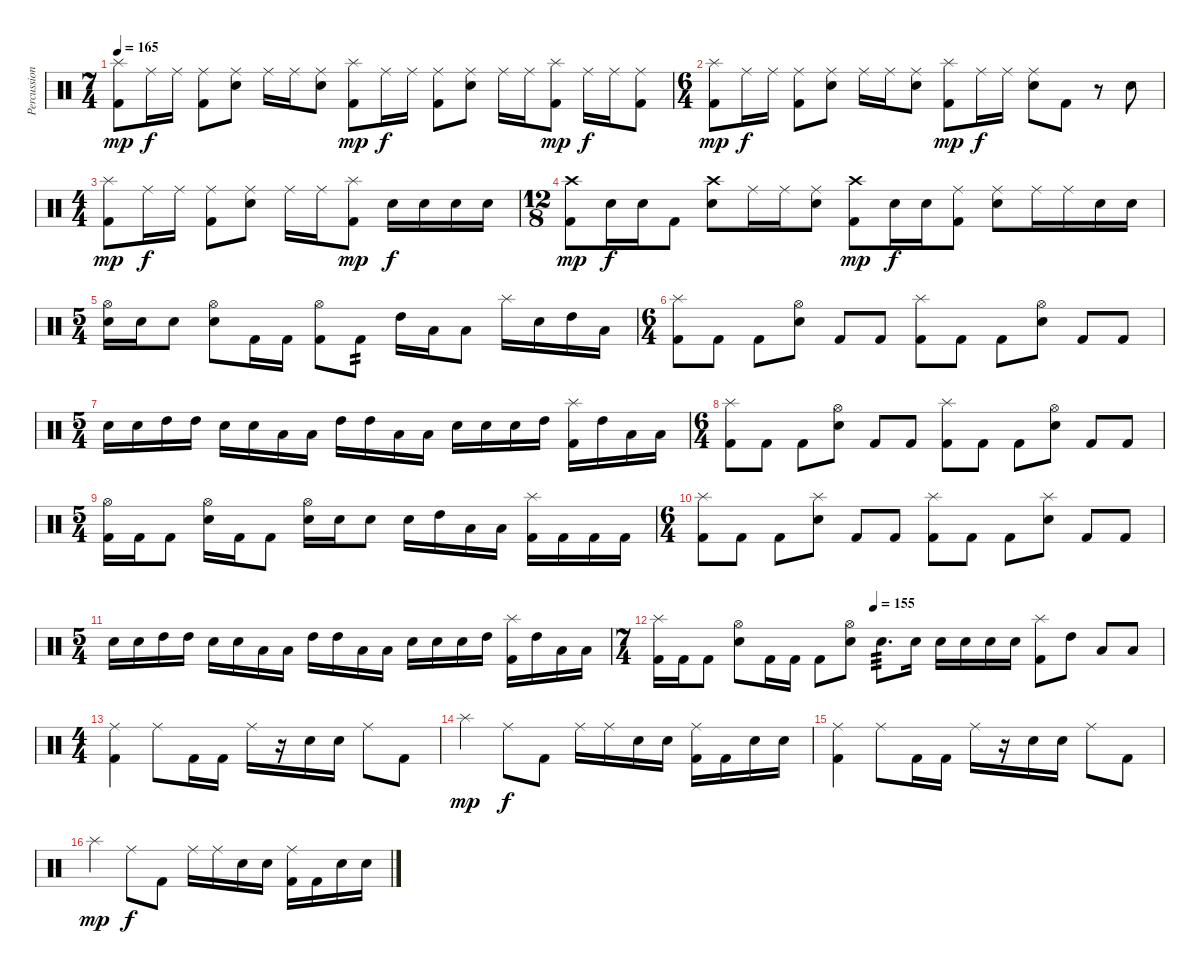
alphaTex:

\track ("Percussion" "Percussion") {instrument percussion}
\staff {score}
\articulation defaults
\ts (7 4)
\tempo 165
\clef neutral
\ks c
("Splash (hit)" "Kick (hit) 2").8{dy mp} "Ride (middle)".16{dy f} "Ride (middle)".16 ("Ride (middle)" "Kick (hit) 2").8 ("Ride (middle)" "Electric Snare (hit)").8 "Ride (middle)".16 "Ride (middle)".16 ("Ride (middle)" "Electric Snare (hit)").8 ("Splash (hit)" "Kick (hit) 2").8{dy mp} "Ride (middle)".16{dy f} "Ride (middle)".16 ("Ride (middle)" "Kick (hit) 2").8 ("Ride (middle)" "Electric Snare (hit)").8 "Ride (middle)".16 "Ride (middle)".16 ("Splash (hit)" "Kick (hit) 2").8{dy mp} "Ride (middle)".16{dy f} "Ride (middle)".16 ("Ride (middle)" "Kick (hit) 2").8 |
\ts (6 4)
("Splash (hit)" "Kick (hit) 2").8{dy mp} "Ride (middle)".16{dy f} "Ride (middle)".16 ("Ride (middle)" "Kick (hit) 2").8 ("Ride (middle)" "Electric Snare (hit)").8 "Ride (middle)".16 "Ride (middle)".16 ("Ride (middle)" "Electric Snare (hit)").8 ("Splash (hit)" "Kick (hit) 2").8{dy mp} "Ride (middle)".16{dy f} "Ride (middle)".16 ("Ride (middle)" "Electric Snare (hit)").8 "Kick (hit) 2".8 r.8 "Electric Snare (hit)".8 |
\ts (4 4)
("Splash (hit)" "Kick (hit) 2").8{dy mp} "Ride (middle)".16{dy f} "Ride (middle)".16 ("Ride (middle)" "Kick (hit) 2").8 ("Ride (middle)" "Electric Snare (hit)").8 "Ride (middle)".16 "Ride (middle)".16 ("Splash (hit)" "Kick (hit) 2").8{dy mp} "Electric Snare (hit)".16{dy f} "Electric Snare (hit)".16 "Electric Snare (hit)".16 "Electric Snare (hit)".16 |
\ts (12 8)
("Crash high (hit)" "Kick (hit) 2").8{dy mp} "Electric Snare (hit)".16{dy f} "Electric Snare (hit)".16 "Kick (hit) 2".8 ("Crash high (hit)" "Electric Snare (hit)").8 "Ride (middle)".16 "Ride (middle)".16 ("Ride (middle)" "Electric Snare (hit)").8 ("Crash high (hit)" "Kick (hit) 2").8{dy mp} "Electric Snare (hit)".16{dy f} "Electric Snare (hit)".16 ("Ride (middle)" "Kick (hit) 2").8 ("Ride (middle)" "Electric Snare (hit)").8 "Ride (middle)".16 "Ride (middle)".16 "Electric Snare (hit)".16 "Electric Snare (hit)".16 |
\ts (5 4)
("Hi-Hat (open)" "Electric Snare (hit)").16 "Electric Snare (hit)".16 "Electric Snare (hit)".8 ("Hi-Hat (open)" "Electric Snare (hit)").8 "Kick (hit) 2".16 "Kick (hit) 2".16 ("Hi-Hat (open)" "Kick (hit) 2").8 "Kick (hit) 2".8{tp 2} "High Tom (hit)".16 "Low Tom (hit)".16 "Low Floor Tom (hit)".8 "Splash (hit)".16 "Electric Snare (hit)".16 "High Tom (hit)".16 "Low Tom (hit)".16 |
\ts (6 4)
("Splash (hit)" "Kick (hit) 2").8 "Kick (hit) 2".8 "Kick (hit) 2".8 ("Hi-Hat (open)" "Electric Snare (hit)").8 "Kick (hit) 2".8 "Kick (hit) 2".8 ("Splash (hit)" "Kick (hit) 2").8 "Kick (hit) 2".8 "Kick (hit) 2".8 ("Hi-Hat (open)" "Electric Snare (hit)").8 "Kick (hit) 2".8 "Kick (hit) 2".8 |
\ts (5 4)
"Electric Snare (hit)".16 "Electric Snare (hit)".16 "High Tom (hit)".16 "High Tom (hit)".16 "Electric Snare (hit)".16 "Electric Snare (hit)".16 "Low Tom (hit)".16 "Low Tom (hit)".16 "High Tom (hit)".16 "High Tom (hit)".16 "Low Tom (hit)".16 "Low Floor Tom (hit)".16 "Electric Snare (hit)".16 "Electric Snare (hit)".16 "Electric Snare (hit)".16 "High Tom (hit)".16 ("Splash (hit)" "Kick (hit) 2").16 "High Tom (hit)".16 "Low Tom (hit)".16 "Low Floor Tom (hit)".16 |
\ts (6 4)
("Splash (hit)" "Kick (hit) 2").8 "Kick (hit) 2".8 "Kick (hit) 2".8 ("Hi-Hat (open)" "Electric Snare (hit)").8 "Kick (hit) 2".8 "Kick (hit) 2".8 ("Splash (hit)" "Kick (hit) 2").8 "Kick (hit) 2".8 "Kick (hit) 2".8 ("Hi-Hat (open)" "Electric Snare (hit)").8 "Kick (hit) 2".8 "Kick (hit) 2".8 |
\ts (5 4)
("Hi-Hat (open)" "Kick (hit) 2").16 "Kick (hit) 2".16 "Kick (hit) 2".8 ("Hi-Hat (open)" "Electric Snare (hit)").16 "Kick (hit) 2".16 "Kick (hit) 2".8 ("Hi-Hat (open)" "Electric Snare (hit)").16 "Electric Snare (hit)".16 "Electric Snare (hit)".8 "Electric Snare (hit)".16 "High Tom (hit)".16 "Low Tom (hit)".16 "Low Floor Tom (hit)".16 ("Splash (hit)" "Kick (hit) 2").16 "Kick (hit) 2".16 "Kick (hit) 2".16 "Kick (hit) 2".16 |
\ts (6 4)
("Splash (hit)" "Kick (hit) 2").8 "Kick (hit) 2".8 "Kick (hit) 2".8 ("Splash (hit)" "Electric Snare (hit)").8 "Kick (hit) 2".8 "Kick (hit) 2".8 ("Splash (hit)" "Kick (hit) 2").8 "Kick (hit) 2".8 "Kick (hit) 2".8 ("Splash (hit)" "Electric Snare (hit)").8 "Kick (hit) 2".8 "Kick (hit) 2".8 |
\ts (5 4)
"Electric Snare (hit)".16 "Electric Snare (hit)".16 "High Tom (hit)".16 "High Tom (hit)".16 "Electric Snare (hit)".16 "Electric Snare (hit)".16 "Low Tom (hit)".16 "Low Tom (hit)".16 "High Tom (hit)".16 "High Tom (hit)".16 "Low Tom (hit)".16 "Low Floor Tom (hit)".16 "Electric Snare (hit)".16 "Electric Snare (hit)".16 "Electric Snare (hit)".16 "High Tom (hit)".16 ("Splash (hit)" "Kick (hit) 2").16 "High Tom (hit)".16 "Low Tom (hit)".16 "Low Floor Tom (hit)".16 |
\ts (7 4)
\tempo (155 0.42857142857142855)
("Splash (hit)" "Kick (hit) 2").16 "Kick (hit) 2".16 "Kick (hit) 2".8 ("Hi-Hat (open)" "Electric Snare (hit)").8 "Kick (hit) 2".16 "Kick (hit) 2".16 "Kick (hit) 2".8 ("Hi-Hat (open)" "Electric Snare (hit)").8 "Electric Snare (hit)".8{d tp 3} "Electric Snare (hit)".16 "Electric Snare (hit)".16 "Electric Snare (hit)".16 "Electric Snare (hit)".16 "Electric Snare (hit)".16 ("Splash (hit)" "Kick (hit) 2").8 "High Tom (hit)".8 "Low Tom (hit)".8 "Low Floor Tom (hit)".8 |
\ts (4 4)
("Ride (middle)" "Kick (hit) 2").4 "Ride (middle)".8 "Kick (hit) 2".16 "Kick (hit) 2".16 "Ride (middle)".16 r.16 "Electric Snare (hit)".16 "Electric Snare (hit)".16 "Ride (middle)".8 "Kick (hit) 2".8 |
"Splash (hit)".4{dy mp} "Ride (middle)".8{dy f} "Kick (hit) 2".8 "Ride (middle)".16 "Ride (middle)".16 "Electric Snare (hit)".16 "Electric Snare (hit)".16 ("Ride (middle)" "Kick (hit) 2").16 "Kick (hit) 2".16 "Electric Snare (hit)".16 "Electric Snare (hit)".16 |
("Ride (middle)" "Kick (hit) 2").4 "Ride (middle)".8 "Kick (hit) 2".16 "Kick (hit) 2".16 "Ride (middle)".16 r.16 "Electric Snare (hit)".16 "Electric Snare (hit)".16 "Ride (middle)".8 "Kick (hit) 2".8 |
"Splash (hit)".4{dy mp} "Ride (middle)".8{dy f} "Kick (hit) 2".8 "Ride (middle)".16 "Ride (middle)".16 "Electric Snare (hit)".16 "Electric Snare (hit)".16 ("Ride (middle)" "Kick (hit) 2").16 "Kick (hit) 2".16 "Electric Snare (hit)".16 "Electric Snare (hit)".16
